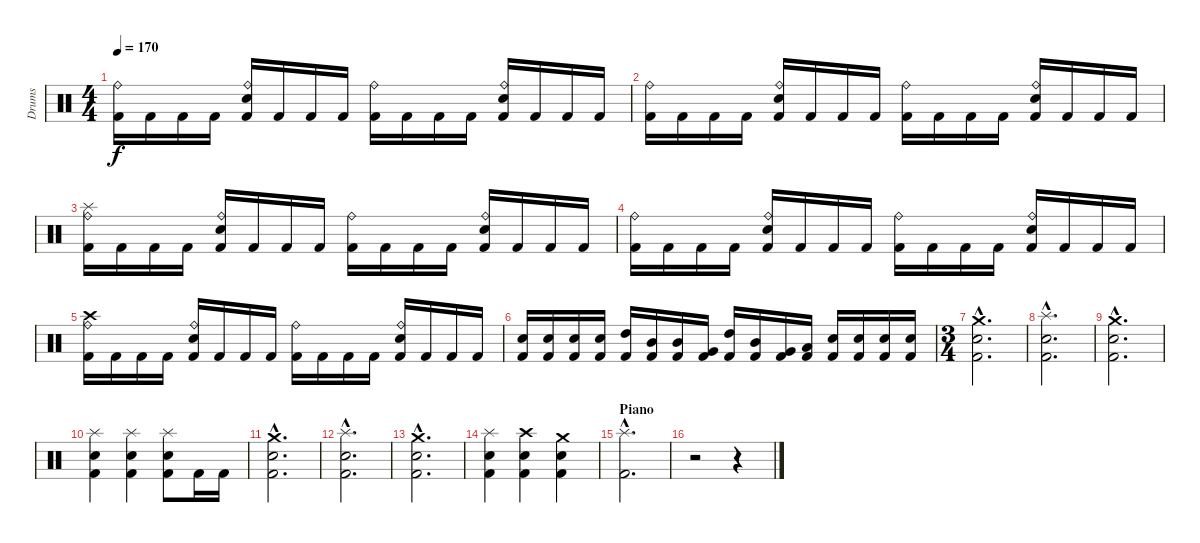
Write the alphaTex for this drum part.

\track ("Drums" "Drums") {instrument percussion}
\staff {score}
\articulation defaults
\ts (4 4)
\tempo 170
\clef neutral
\ks c
("Kick (hit) 2" "Ride (bell)").16{dy f} "Kick (hit) 2".16 "Kick (hit) 2".16 "Kick (hit) 2".16 ("Kick (hit) 2" "Snare (hit) 2" "Ride (bell)").16 "Kick (hit) 2".16 "Kick (hit) 2".16 "Kick (hit) 2".16 ("Kick (hit) 2" "Ride (bell)").16 "Kick (hit) 2".16 "Kick (hit) 2".16 "Kick (hit) 2".16 ("Kick (hit) 2" "Snare (hit) 2" "Ride (bell)").16 "Kick (hit) 2".16 "Kick (hit) 2".16 "Kick (hit) 2".16 |
("Kick (hit) 2" "Ride (bell)").16 "Kick (hit) 2".16 "Kick (hit) 2".16 "Kick (hit) 2".16 ("Kick (hit) 2" "Snare (hit) 2" "Ride (bell)").16 "Kick (hit) 2".16 "Kick (hit) 2".16 "Kick (hit) 2".16 ("Kick (hit) 2" "Ride (bell)").16 "Kick (hit) 2".16 "Kick (hit) 2".16 "Kick (hit) 2".16 ("Kick (hit) 2" "Snare (hit) 2" "Ride (bell)").16 "Kick (hit) 2".16 "Kick (hit) 2".16 "Kick (hit) 2".16 |
("Kick (hit) 2" "Ride (bell)" "Splash (hit)").16 "Kick (hit) 2".16 "Kick (hit) 2".16 "Kick (hit) 2".16 ("Kick (hit) 2" "Snare (hit) 2" "Ride (bell)").16 "Kick (hit) 2".16 "Kick (hit) 2".16 "Kick (hit) 2".16 ("Kick (hit) 2" "Ride (bell)").16 "Kick (hit) 2".16 "Kick (hit) 2".16 "Kick (hit) 2".16 ("Kick (hit) 2" "Snare (hit) 2" "Ride (bell)").16 "Kick (hit) 2".16 "Kick (hit) 2".16 "Kick (hit) 2".16 |
("Kick (hit) 2" "Ride (bell)").16 "Kick (hit) 2".16 "Kick (hit) 2".16 "Kick (hit) 2".16 ("Kick (hit) 2" "Snare (hit) 2" "Ride (bell)").16 "Kick (hit) 2".16 "Kick (hit) 2".16 "Kick (hit) 2".16 ("Kick (hit) 2" "Ride (bell)").16 "Kick (hit) 2".16 "Kick (hit) 2".16 "Kick (hit) 2".16 ("Kick (hit) 2" "Snare (hit) 2" "Ride (bell)").16 "Kick (hit) 2".16 "Kick (hit) 2".16 "Kick (hit) 2".16 |
("Kick (hit) 2" "Ride (bell)" "Crash high (hit)").16 "Kick (hit) 2".16 "Kick (hit) 2".16 "Kick (hit) 2".16 ("Kick (hit) 2" "Snare (hit) 2" "Ride (bell)").16 "Kick (hit) 2".16 "Kick (hit) 2".16 "Kick (hit) 2".16 ("Kick (hit) 2" "Ride (bell)").16 "Kick (hit) 2".16 "Kick (hit) 2".16 "Kick (hit) 2".16 ("Kick (hit) 2" "Snare (hit) 2" "Ride (bell)").16 "Kick (hit) 2".16 "Kick (hit) 2".16 "Kick (hit) 2".16 |
("Kick (hit) 2" "Snare (hit) 2").16 ("Kick (hit) 2" "Snare (hit) 2").16 ("Kick (hit) 2" "Snare (hit) 2").16 ("Kick (hit) 2" "Snare (hit) 2").16 ("Kick (hit) 2" "High Tom (hit)").16 ("Kick (hit) 2" "Mid Tom (hit)").16 ("Kick (hit) 2" "Mid Tom (hit)").16 ("Kick (hit) 2" "Very Low Tom (hit)").16 ("Kick (hit) 2" "High Tom (hit)").16 ("Kick (hit) 2" "Mid Tom (hit)").16 ("Kick (hit) 2" "Very Low Tom (hit)").16 ("Kick (hit) 2" "Low Floor Tom (hit)").16 ("Kick (hit) 2" "Snare (hit) 2").16 ("Kick (hit) 2" "Snare (hit) 2").16 ("Kick (hit) 2" "Snare (hit) 2").16 ("Kick (hit) 2" "Snare (hit) 2").16 |
\ts (3 4)
\section ("" "")
("Kick (hit) 2"{hac} "Snare (hit) 2"{hac} "Crash medium (hit)"{hac}).2{d} |
("Kick (hit) 2"{hac} "Snare (hit) 2"{hac} "Splash (hit)"{hac}).2{d} |
("Kick (hit) 2"{hac} "Snare (hit) 2"{hac} "Crash medium (hit)"{hac}).2{d} |
("Kick (hit) 2" "Snare (hit) 2" "Splash (hit)").4 ("Kick (hit) 2" "Snare (hit) 2" "Splash (hit)").4 ("Kick (hit) 2" "Snare (hit) 2" "Splash (hit)").8 "Kick (hit) 2".16 "Kick (hit) 2".16 |
("Kick (hit) 2"{hac} "Snare (hit) 2"{hac} "Crash medium (hit)"{hac}).2{d} |
("Kick (hit) 2"{hac} "Snare (hit) 2"{hac} "Splash (hit)"{hac}).2{d} |
("Kick (hit) 2"{hac} "Snare (hit) 2"{hac} "Crash medium (hit)"{hac}).2{d} |
("Kick (hit) 2" "Snare (hit) 2" "Splash (hit)").4 ("Kick (hit) 2" "Snare (hit) 2" "Crash high (hit)").4 ("Kick (hit) 2" "Snare (hit) 2" "Crash medium (hit)").4 |
\section ("" "Piano")
("Kick (hit) 2"{hac} "Splash (hit)"{hac}).2{d} |
r.2 r.4
